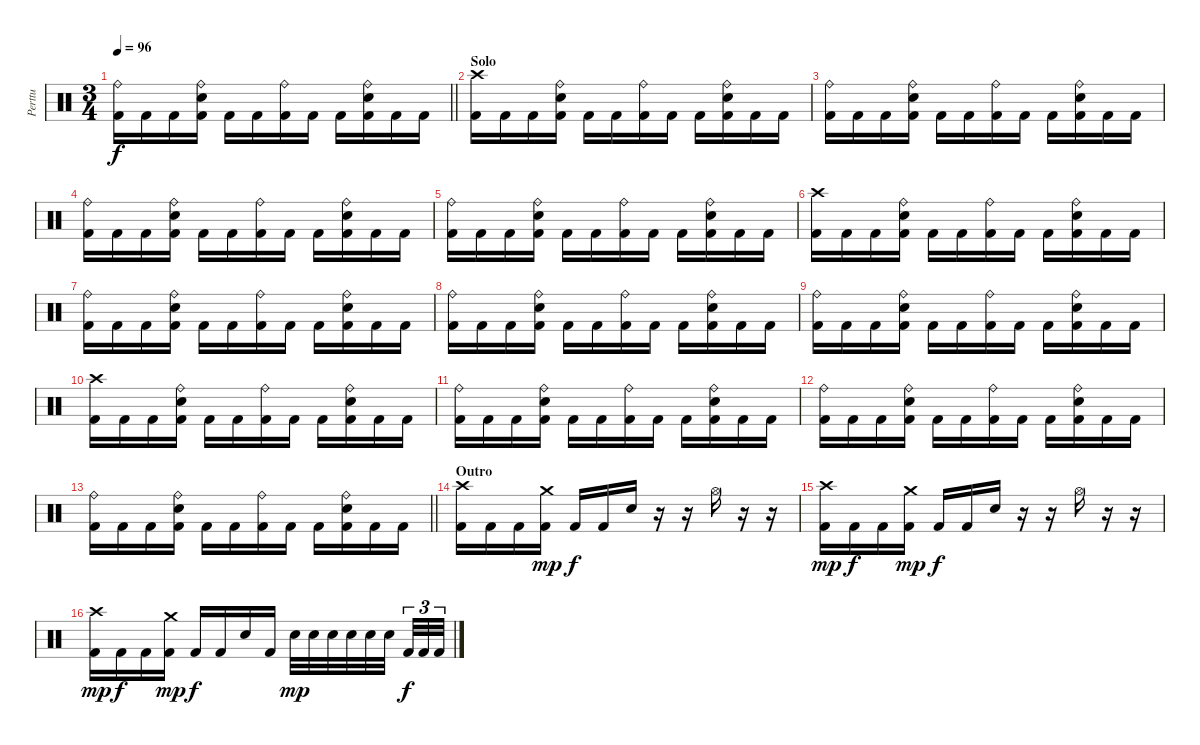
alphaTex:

\track ("Perttu" "Perttu") {instrument percussion}
\staff {score}
\articulation defaults
\ts (3 4)
\tempo 96
\clef neutral
\barLineRight lightlight
\ks c
("Ride (bell)" "Kick (hit) 2").16{dy f} "Kick (hit) 2".16 "Kick (hit) 2".16 ("Ride (bell)" "Electric Snare (hit)" "Kick (hit) 2").16 "Kick (hit) 2".16 "Kick (hit) 2".16 ("Ride (bell)" "Kick (hit) 2").16 "Kick (hit) 2".16 "Kick (hit) 2".16 ("Ride (bell)" "Electric Snare (hit)" "Kick (hit) 2").16 "Kick (hit) 2".16 "Kick (hit) 2".16 |
\section ("" "Solo")
("Crash high (hit)" "Kick (hit) 2").16 "Kick (hit) 2".16 "Kick (hit) 2".16 ("Ride (bell)" "Electric Snare (hit)" "Kick (hit) 2").16 "Kick (hit) 2".16 "Kick (hit) 2".16 ("Ride (bell)" "Kick (hit) 2").16 "Kick (hit) 2".16 "Kick (hit) 2".16 ("Ride (bell)" "Electric Snare (hit)" "Kick (hit) 2").16 "Kick (hit) 2".16 "Kick (hit) 2".16 |
("Ride (bell)" "Kick (hit) 2").16 "Kick (hit) 2".16 "Kick (hit) 2".16 ("Ride (bell)" "Electric Snare (hit)" "Kick (hit) 2").16 "Kick (hit) 2".16 "Kick (hit) 2".16 ("Ride (bell)" "Kick (hit) 2").16 "Kick (hit) 2".16 "Kick (hit) 2".16 ("Ride (bell)" "Electric Snare (hit)" "Kick (hit) 2").16 "Kick (hit) 2".16 "Kick (hit) 2".16 |
("Ride (bell)" "Kick (hit) 2").16 "Kick (hit) 2".16 "Kick (hit) 2".16 ("Ride (bell)" "Electric Snare (hit)" "Kick (hit) 2").16 "Kick (hit) 2".16 "Kick (hit) 2".16 ("Ride (bell)" "Kick (hit) 2").16 "Kick (hit) 2".16 "Kick (hit) 2".16 ("Ride (bell)" "Electric Snare (hit)" "Kick (hit) 2").16 "Kick (hit) 2".16 "Kick (hit) 2".16 |
("Ride (bell)" "Kick (hit) 2").16 "Kick (hit) 2".16 "Kick (hit) 2".16 ("Ride (bell)" "Electric Snare (hit)" "Kick (hit) 2").16 "Kick (hit) 2".16 "Kick (hit) 2".16 ("Ride (bell)" "Kick (hit) 2").16 "Kick (hit) 2".16 "Kick (hit) 2".16 ("Ride (bell)" "Electric Snare (hit)" "Kick (hit) 2").16 "Kick (hit) 2".16 "Kick (hit) 2".16 |
("Crash high (hit)" "Kick (hit) 2").16 "Kick (hit) 2".16 "Kick (hit) 2".16 ("Ride (bell)" "Electric Snare (hit)" "Kick (hit) 2").16 "Kick (hit) 2".16 "Kick (hit) 2".16 ("Ride (bell)" "Kick (hit) 2").16 "Kick (hit) 2".16 "Kick (hit) 2".16 ("Ride (bell)" "Electric Snare (hit)" "Kick (hit) 2").16 "Kick (hit) 2".16 "Kick (hit) 2".16 |
("Ride (bell)" "Kick (hit) 2").16 "Kick (hit) 2".16 "Kick (hit) 2".16 ("Ride (bell)" "Electric Snare (hit)" "Kick (hit) 2").16 "Kick (hit) 2".16 "Kick (hit) 2".16 ("Ride (bell)" "Kick (hit) 2").16 "Kick (hit) 2".16 "Kick (hit) 2".16 ("Ride (bell)" "Electric Snare (hit)" "Kick (hit) 2").16 "Kick (hit) 2".16 "Kick (hit) 2".16 |
("Ride (bell)" "Kick (hit) 2").16 "Kick (hit) 2".16 "Kick (hit) 2".16 ("Ride (bell)" "Electric Snare (hit)" "Kick (hit) 2").16 "Kick (hit) 2".16 "Kick (hit) 2".16 ("Ride (bell)" "Kick (hit) 2").16 "Kick (hit) 2".16 "Kick (hit) 2".16 ("Ride (bell)" "Electric Snare (hit)" "Kick (hit) 2").16 "Kick (hit) 2".16 "Kick (hit) 2".16 |
("Ride (bell)" "Kick (hit) 2").16 "Kick (hit) 2".16 "Kick (hit) 2".16 ("Ride (bell)" "Electric Snare (hit)" "Kick (hit) 2").16 "Kick (hit) 2".16 "Kick (hit) 2".16 ("Ride (bell)" "Kick (hit) 2").16 "Kick (hit) 2".16 "Kick (hit) 2".16 ("Ride (bell)" "Electric Snare (hit)" "Kick (hit) 2").16 "Kick (hit) 2".16 "Kick (hit) 2".16 |
("Crash high (hit)" "Kick (hit) 2").16 "Kick (hit) 2".16 "Kick (hit) 2".16 ("Ride (bell)" "Electric Snare (hit)" "Kick (hit) 2").16 "Kick (hit) 2".16 "Kick (hit) 2".16 ("Ride (bell)" "Kick (hit) 2").16 "Kick (hit) 2".16 "Kick (hit) 2".16 ("Ride (bell)" "Electric Snare (hit)" "Kick (hit) 2").16 "Kick (hit) 2".16 "Kick (hit) 2".16 |
("Ride (bell)" "Kick (hit) 2").16 "Kick (hit) 2".16 "Kick (hit) 2".16 ("Ride (bell)" "Electric Snare (hit)" "Kick (hit) 2").16 "Kick (hit) 2".16 "Kick (hit) 2".16 ("Ride (bell)" "Kick (hit) 2").16 "Kick (hit) 2".16 "Kick (hit) 2".16 ("Ride (bell)" "Electric Snare (hit)" "Kick (hit) 2").16 "Kick (hit) 2".16 "Kick (hit) 2".16 |
("Ride (bell)" "Kick (hit) 2").16 "Kick (hit) 2".16 "Kick (hit) 2".16 ("Ride (bell)" "Electric Snare (hit)" "Kick (hit) 2").16 "Kick (hit) 2".16 "Kick (hit) 2".16 ("Ride (bell)" "Kick (hit) 2").16 "Kick (hit) 2".16 "Kick (hit) 2".16 ("Ride (bell)" "Electric Snare (hit)" "Kick (hit) 2").16 "Kick (hit) 2".16 "Kick (hit) 2".16 |
\barLineRight lightlight
("Ride (bell)" "Kick (hit) 2").16 "Kick (hit) 2".16 "Kick (hit) 2".16 ("Ride (bell)" "Electric Snare (hit)" "Kick (hit) 2").16 "Kick (hit) 2".16 "Kick (hit) 2".16 ("Ride (bell)" "Kick (hit) 2").16 "Kick (hit) 2".16 "Kick (hit) 2".16 ("Ride (bell)" "Electric Snare (hit)" "Kick (hit) 2").16 "Kick (hit) 2".16 "Kick (hit) 2".16 |
\section ("" "Outro")
("Crash high (hit)" "Kick (hit) 2").16 "Kick (hit) 2".16 "Kick (hit) 2".16 ("Crash medium (hit)" "Kick (hit) 2").16{dy mp} "Kick (hit) 2".16{dy f} "Kick (hit) 2".16 "Electric Snare (hit)".16 r.16 r.16 "Hi-Hat (open)".16 r.16 r.16 |
("Crash high (hit)" "Kick (hit) 2").16{dy mp} "Kick (hit) 2".16{dy f} "Kick (hit) 2".16 ("Crash medium (hit)" "Kick (hit) 2").16{dy mp} "Kick (hit) 2".16{dy f} "Kick (hit) 2".16 "Electric Snare (hit)".16 r.16 r.16 "Hi-Hat (open)".16 r.16 r.16 |
("Crash high (hit)" "Kick (hit) 2").16{dy mp} "Kick (hit) 2".16{dy f} "Kick (hit) 2".16 ("Crash medium (hit)" "Kick (hit) 2").16{dy mp} "Kick (hit) 2".16{dy f} "Kick (hit) 2".16 "Electric Snare (hit)".16 "Kick (hit) 2".16 "Electric Snare (hit)".32{dy mp} "Electric Snare (hit)".32 "Electric Snare (hit)".32 "Electric Snare (hit)".32 "Electric Snare (hit)".32 "Electric Snare (hit)".32 "Kick (hit) 2".32{tu (3 2) dy f} "Kick (hit) 2".32{tu (3 2)} "Kick (hit) 2".32{tu (3 2)}
